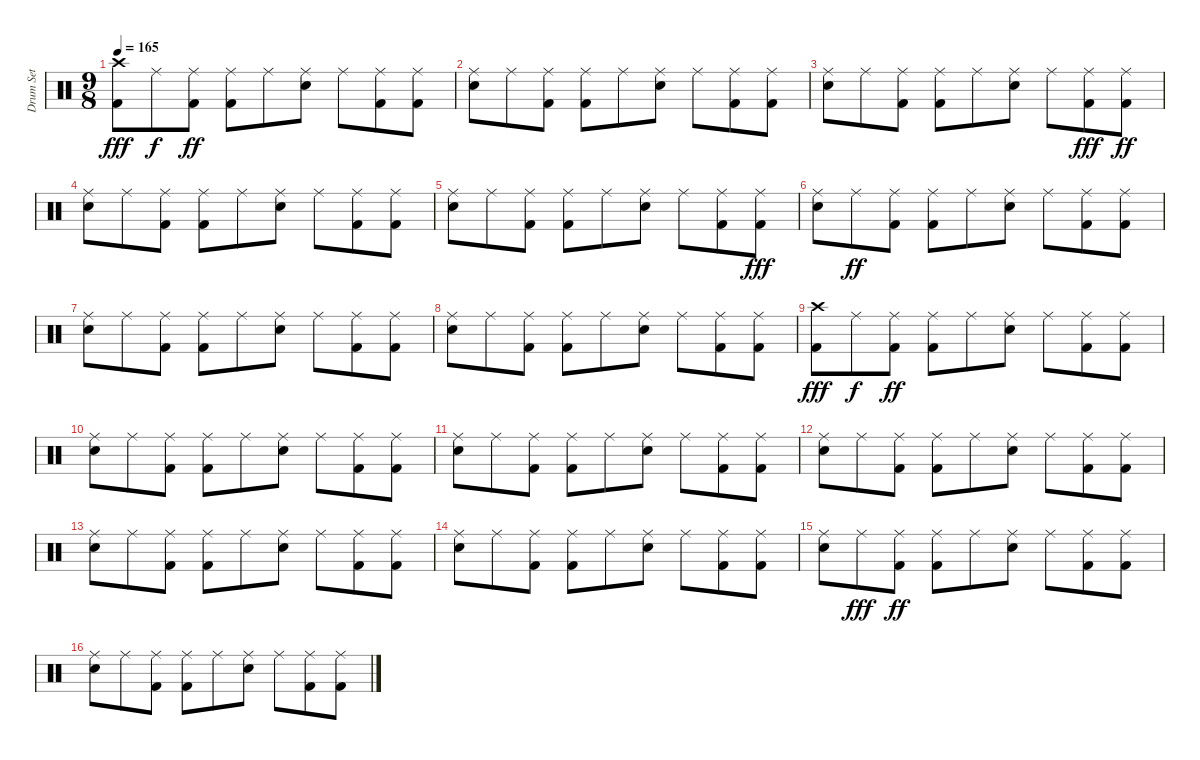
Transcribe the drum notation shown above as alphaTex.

\track ("Drum Set" "Drum Set") {instrument percussion}
\staff {score}
\articulation defaults
\ts (9 8)
\tempo 165
\clef neutral
\ks c
("Kick (hit) 2" "Crash high (hit)").8{dy fff} "Ride (middle)".8{dy f} ("Kick (hit) 2" "Ride (middle)").8{dy ff} ("Kick (hit) 2" "Ride (middle)").8 "Ride (middle)".8 ("Snare (hit) 2" "Ride (middle)").8 "Ride (middle)".8 ("Kick (hit) 2" "Ride (middle)").8 ("Kick (hit) 2" "Ride (middle)").8 |
("Snare (hit) 2" "Ride (middle)").8 "Ride (middle)".8 ("Kick (hit) 2" "Ride (middle)").8 ("Kick (hit) 2" "Ride (middle)").8 "Ride (middle)".8 ("Snare (hit) 2" "Ride (middle)").8 "Ride (middle)".8 ("Kick (hit) 2" "Ride (middle)").8 ("Kick (hit) 2" "Ride (middle)").8 |
("Snare (hit) 2" "Ride (middle)").8 "Ride (middle)".8 ("Kick (hit) 2" "Ride (middle)").8 ("Kick (hit) 2" "Ride (middle)").8 "Ride (middle)".8 ("Snare (hit) 2" "Ride (middle)").8 "Ride (middle)".8 ("Kick (hit) 2" "Ride (middle)").8{dy fff} ("Kick (hit) 2" "Ride (middle)").8{dy ff} |
("Snare (hit) 2" "Ride (middle)").8 "Ride (middle)".8 ("Kick (hit) 2" "Ride (middle)").8 ("Kick (hit) 2" "Ride (middle)").8 "Ride (middle)".8 ("Snare (hit) 2" "Ride (middle)").8 "Ride (middle)".8 ("Kick (hit) 2" "Ride (middle)").8 ("Kick (hit) 2" "Ride (middle)").8 |
("Snare (hit) 2" "Ride (middle)").8 "Ride (middle)".8 ("Kick (hit) 2" "Ride (middle)").8 ("Kick (hit) 2" "Ride (middle)").8 "Ride (middle)".8 ("Snare (hit) 2" "Ride (middle)").8 "Ride (middle)".8 ("Kick (hit) 2" "Ride (middle)").8 ("Kick (hit) 2" "Ride (middle)").8{dy fff} |
("Snare (hit) 2" "Ride (middle)").8 "Ride (middle)".8{dy ff} ("Kick (hit) 2" "Ride (middle)").8 ("Kick (hit) 2" "Ride (middle)").8 "Ride (middle)".8 ("Snare (hit) 2" "Ride (middle)").8 "Ride (middle)".8 ("Kick (hit) 2" "Ride (middle)").8 ("Kick (hit) 2" "Ride (middle)").8 |
("Snare (hit) 2" "Ride (middle)").8 "Ride (middle)".8 ("Kick (hit) 2" "Ride (middle)").8 ("Kick (hit) 2" "Ride (middle)").8 "Ride (middle)".8 ("Snare (hit) 2" "Ride (middle)").8 "Ride (middle)".8 ("Kick (hit) 2" "Ride (middle)").8 ("Kick (hit) 2" "Ride (middle)").8 |
("Snare (hit) 2" "Ride (middle)").8 "Ride (middle)".8 ("Kick (hit) 2" "Ride (middle)").8 ("Kick (hit) 2" "Ride (middle)").8 "Ride (middle)".8 ("Snare (hit) 2" "Ride (middle)").8 "Ride (middle)".8 ("Kick (hit) 2" "Ride (middle)").8 ("Kick (hit) 2" "Ride (middle)").8 |
("Kick (hit) 2" "Crash high (hit)").8{dy fff} "Ride (middle)".8{dy f} ("Kick (hit) 2" "Ride (middle)").8{dy ff} ("Kick (hit) 2" "Ride (middle)").8 "Ride (middle)".8 ("Snare (hit) 2" "Ride (middle)").8 "Ride (middle)".8 ("Kick (hit) 2" "Ride (middle)").8 ("Kick (hit) 2" "Ride (middle)").8 |
("Snare (hit) 2" "Ride (middle)").8 "Ride (middle)".8 ("Kick (hit) 2" "Ride (middle)").8 ("Kick (hit) 2" "Ride (middle)").8 "Ride (middle)".8 ("Snare (hit) 2" "Ride (middle)").8 "Ride (middle)".8 ("Kick (hit) 2" "Ride (middle)").8 ("Kick (hit) 2" "Ride (middle)").8 |
("Snare (hit) 2" "Ride (middle)").8 "Ride (middle)".8 ("Kick (hit) 2" "Ride (middle)").8 ("Kick (hit) 2" "Ride (middle)").8 "Ride (middle)".8 ("Snare (hit) 2" "Ride (middle)").8 "Ride (middle)".8 ("Kick (hit) 2" "Ride (middle)").8 ("Kick (hit) 2" "Ride (middle)").8 |
("Snare (hit) 2" "Ride (middle)").8 "Ride (middle)".8 ("Kick (hit) 2" "Ride (middle)").8 ("Kick (hit) 2" "Ride (middle)").8 "Ride (middle)".8 ("Snare (hit) 2" "Ride (middle)").8 "Ride (middle)".8 ("Kick (hit) 2" "Ride (middle)").8 ("Kick (hit) 2" "Ride (middle)").8 |
("Snare (hit) 2" "Ride (middle)").8 "Ride (middle)".8 ("Kick (hit) 2" "Ride (middle)").8 ("Kick (hit) 2" "Ride (middle)").8 "Ride (middle)".8 ("Snare (hit) 2" "Ride (middle)").8 "Ride (middle)".8 ("Kick (hit) 2" "Ride (middle)").8 ("Kick (hit) 2" "Ride (middle)").8 |
("Snare (hit) 2" "Ride (middle)").8 "Ride (middle)".8 ("Kick (hit) 2" "Ride (middle)").8 ("Kick (hit) 2" "Ride (middle)").8 "Ride (middle)".8 ("Snare (hit) 2" "Ride (middle)").8 "Ride (middle)".8 ("Kick (hit) 2" "Ride (middle)").8 ("Kick (hit) 2" "Ride (middle)").8 |
("Snare (hit) 2" "Ride (middle)").8 "Ride (middle)".8{dy fff} ("Kick (hit) 2" "Ride (middle)").8{dy ff} ("Kick (hit) 2" "Ride (middle)").8 "Ride (middle)".8 ("Snare (hit) 2" "Ride (middle)").8 "Ride (middle)".8 ("Kick (hit) 2" "Ride (middle)").8 ("Kick (hit) 2" "Ride (middle)").8 |
("Snare (hit) 2" "Ride (middle)").8 "Ride (middle)".8 ("Kick (hit) 2" "Ride (middle)").8 ("Kick (hit) 2" "Ride (middle)").8 "Ride (middle)".8 ("Snare (hit) 2" "Ride (middle)").8 "Ride (middle)".8 ("Kick (hit) 2" "Ride (middle)").8 ("Kick (hit) 2" "Ride (middle)").8
